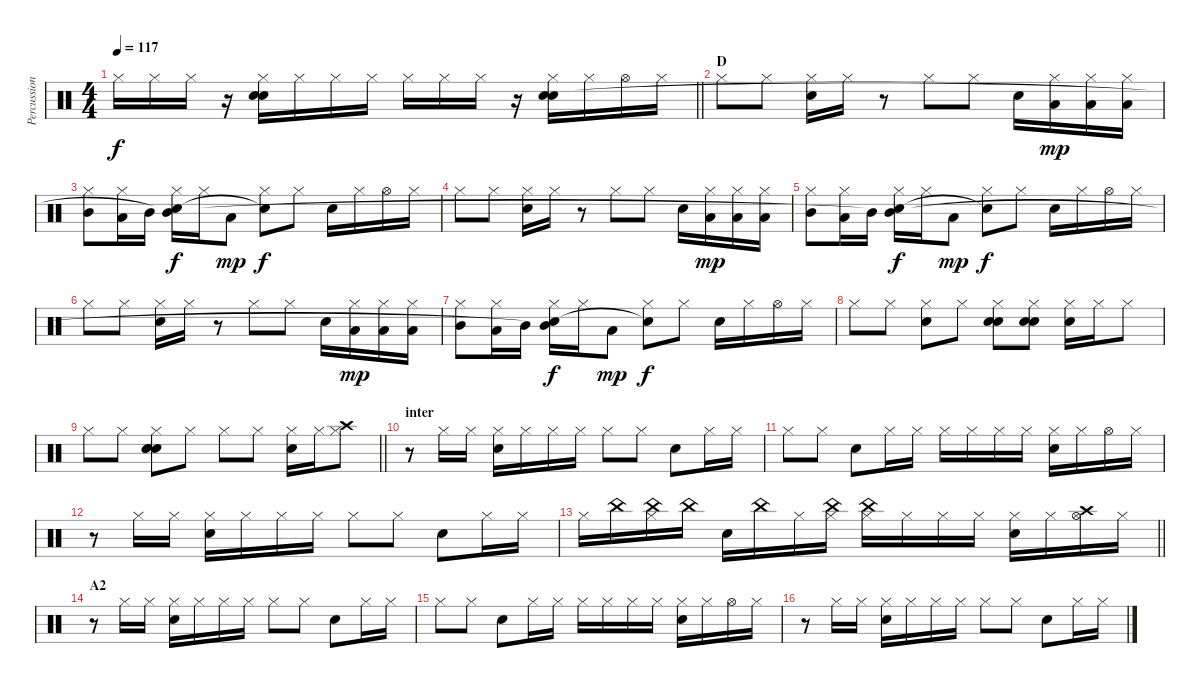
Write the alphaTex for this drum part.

\track ("Percussions" "Percussion") {instrument percussion}
\staff {score}
\articulation defaults
\ts (4 4)
\tempo 117
\clef neutral
\barLineRight lightlight
\ks c "Hi-Hat (closed)".16{dy f} "Hi-Hat (closed)".16 "Hi-Hat (closed)".16
r.16 ("Hi-Hat (closed)" "Electric Snare (hit)" "Hand Clap (hit)").16 "Hi-Hat (closed)".16 "Hi-Hat (closed)".16 "Hi-Hat (closed)".16 "Hi-Hat (closed)".16 "Hi-Hat (closed)".16 "Hi-Hat (closed)".16 r.16 ("Hi-Hat (closed)" "Hand Clap (hit)" "Electric Snare (hit)").16 "Hi-Hat (closed)".16 "Hi-Hat (open)".16 "Hi-Hat (closed)".16 |
\section ("" "D")
"Hi-Hat (closed)".8 "Hi-Hat (closed)".8 ("Hi-Hat (closed)" "Electric Snare (hit)").16 "Hi-Hat (closed)".16 r.8 "Hi-Hat (closed)".8 "Hi-Hat (closed)".8 "Electric Snare (hit)".16 ("Hi-Hat (closed)" "Low Tom (hit)").16{dy mp} ("Hi-Hat (closed)" "Low Tom (hit)").16 ("Hi-Hat (closed)" "Low Tom (hit)").16 |
("Hi-Hat (closed)" "Mid Tom (hit)").8 ("Hi-Hat (closed)" "Low Tom (hit)").16 "Mid Tom (hit)".16 ("Hi-Hat (closed)" "Electric Snare (hit)" "Mid Tom (hit)"{t}).16{dy f} "Hi-Hat (closed)".16 "Low Tom (hit)".8{dy mp} ("Hi-Hat (closed)" "Snare (hit)"{t}).8{dy f} "Hi-Hat (closed)".8 "Electric Snare (hit)".16 "Hi-Hat (closed)".16 "Hi-Hat (open)".16 "Hi-Hat (closed)".16 |
"Hi-Hat (closed)".8 "Hi-Hat (closed)".8 ("Hi-Hat (closed)" "Electric Snare (hit)").16 "Hi-Hat (closed)".16 r.8 "Hi-Hat (closed)".8 "Hi-Hat (closed)".8 "Electric Snare (hit)".16 ("Hi-Hat (closed)" "Low Tom (hit)").16{dy mp} ("Hi-Hat (closed)" "Low Tom (hit)").16 ("Hi-Hat (closed)" "Low Tom (hit)").16 |
("Hi-Hat (closed)" "Mid Tom (hit)").8 ("Hi-Hat (closed)" "Low Tom (hit)").16 "Mid Tom (hit)".16 ("Hi-Hat (closed)" "Electric Snare (hit)" "Mid Tom (hit)"{t}).16{dy f} "Hi-Hat (closed)".16 "Low Tom (hit)".8{dy mp} ("Hi-Hat (closed)" "Snare (hit)"{t}).8{dy f} "Hi-Hat (closed)".8 "Electric Snare (hit)".16 "Hi-Hat (closed)".16 "Hi-Hat (open)".16 "Hi-Hat (closed)".16 |
"Hi-Hat (closed)".8 "Hi-Hat (closed)".8 ("Hi-Hat (closed)" "Electric Snare (hit)").16 "Hi-Hat (closed)".16 r.8 "Hi-Hat (closed)".8 "Hi-Hat (closed)".8 "Electric Snare (hit)".16 ("Hi-Hat (closed)" "Low Tom (hit)").16{dy mp} ("Hi-Hat (closed)" "Low Tom (hit)").16 ("Hi-Hat (closed)" "Low Tom (hit)").16 |
("Hi-Hat (closed)" "Mid Tom (hit)").8 ("Hi-Hat (closed)" "Low Tom (hit)").16 "Mid Tom (hit)".16 ("Hi-Hat (closed)" "Electric Snare (hit)" "Mid Tom (hit)"{t}).16{dy f} "Hi-Hat (closed)".16 "Low Tom (hit)".8{dy mp} ("Hi-Hat (closed)" "Snare (hit)"{t}).8{dy f} "Hi-Hat (closed)".8 "Electric Snare (hit)".16 "Hi-Hat (closed)".16 "Hi-Hat (open)".16 "Hi-Hat (closed)".16 |
"Hi-Hat (closed)".8 "Hi-Hat (closed)".8 ("Hi-Hat (closed)" "Electric Snare (hit)").8 "Hi-Hat (closed)".8 ("Hi-Hat (closed)" "Snare (hit) 2" "Hand Clap (hit)").8 ("Hi-Hat (closed)" "Snare (hit) 2" "Hand Clap (hit)").8 ("Hi-Hat (closed)" "Electric Snare (hit)").16 "Hi-Hat (closed)".16 "Hi-Hat (closed)".8 |
\barLineRight lightlight "Hi-Hat (closed)".8 "Hi-Hat (closed)".8
("Hi-Hat (closed)" "Electric Snare (hit)" "Snare (hit) 2" "Hand Clap (hit)").8 "Hi-Hat (closed)".8 "Hi-Hat (closed)".8 "Hi-Hat (closed)".8 ("Hi-Hat (closed)" "Electric Snare (hit)").16 "Hi-Hat (closed)".16 ("Hi-Hat (closed)" "Crash high (hit)").8 |
\section ("" "inter")
r.8 "Hi-Hat (closed)".16 "Hi-Hat (closed)".16 ("Hi-Hat (closed)" "Electric Snare (hit)").16 "Hi-Hat (closed)".16 "Hi-Hat (closed)".16 "Hi-Hat (closed)".16 "Hi-Hat (closed)".8 "Hi-Hat (closed)".8 "Electric Snare (hit)".8 "Hi-Hat (closed)".16 "Hi-Hat (closed)".16 |
"Hi-Hat (closed)".8 "Hi-Hat (closed)".8 "Electric Snare (hit)".8 "Hi-Hat (closed)".16 "Hi-Hat (closed)".16 "Hi-Hat (closed)".16 "Hi-Hat (closed)".16 "Hi-Hat (closed)".16 "Hi-Hat (closed)".16 ("Hi-Hat (closed)" "Electric Snare (hit)").16 "Hi-Hat (closed)".16 "Hi-Hat (open)".16 "Hi-Hat (closed)".16 |
r.8 "Hi-Hat (closed)".16 "Hi-Hat (closed)".16 ("Hi-Hat (closed)" "Electric Snare (hit)").16 "Hi-Hat (closed)".16 "Hi-Hat (closed)".16 "Hi-Hat (closed)".16 "Hi-Hat (closed)".8 "Hi-Hat (closed)".8 "Electric Snare (hit)".8 "Hi-Hat (closed)".16 "Hi-Hat (closed)".16 |
\barLineRight lightlight "Hi-Hat (closed)".16 "China (hit)".16
("Hi-Hat (closed)" "China (hit)").16 "China (hit)".16 "Electric Snare (hit)".16 "China (hit)".16 "Hi-Hat (closed)".16 ("Hi-Hat (closed)" "China (hit)").16 ("Hi-Hat (closed)" "China (hit)").16 "Hi-Hat (closed)".16 "Hi-Hat (closed)".16 "Hi-Hat (closed)".16 ("Hi-Hat (closed)" "Electric Snare (hit)").16 "Hi-Hat (closed)".16 ("Hi-Hat (open)" "Crash high (hit)").16 "Hi-Hat (closed)".16 |
\section ("" "A2")
r.8 "Hi-Hat (closed)".16 "Hi-Hat (closed)".16 ("Hi-Hat (closed)" "Electric Snare (hit)").16 "Hi-Hat (closed)".16 "Hi-Hat (closed)".16 "Hi-Hat (closed)".16 "Hi-Hat (closed)".8 "Hi-Hat (closed)".8 "Electric Snare (hit)".8 "Hi-Hat (closed)".16 "Hi-Hat (closed)".16 |
"Hi-Hat (closed)".8 "Hi-Hat (closed)".8 "Electric Snare (hit)".8 "Hi-Hat (closed)".16 "Hi-Hat (closed)".16 "Hi-Hat (closed)".16 "Hi-Hat (closed)".16 "Hi-Hat (closed)".16 "Hi-Hat (closed)".16 ("Hi-Hat (closed)" "Electric Snare (hit)").16 "Hi-Hat (closed)".16 "Hi-Hat (open)".16 "Hi-Hat (closed)".16 |
r.8 "Hi-Hat (closed)".16 "Hi-Hat (closed)".16 ("Hi-Hat (closed)" "Electric Snare (hit)").16 "Hi-Hat (closed)".16 "Hi-Hat (closed)".16 "Hi-Hat (closed)".16 "Hi-Hat (closed)".8 "Hi-Hat (closed)".8 "Electric Snare (hit)".8 "Hi-Hat (closed)".16 "Hi-Hat (closed)".16
